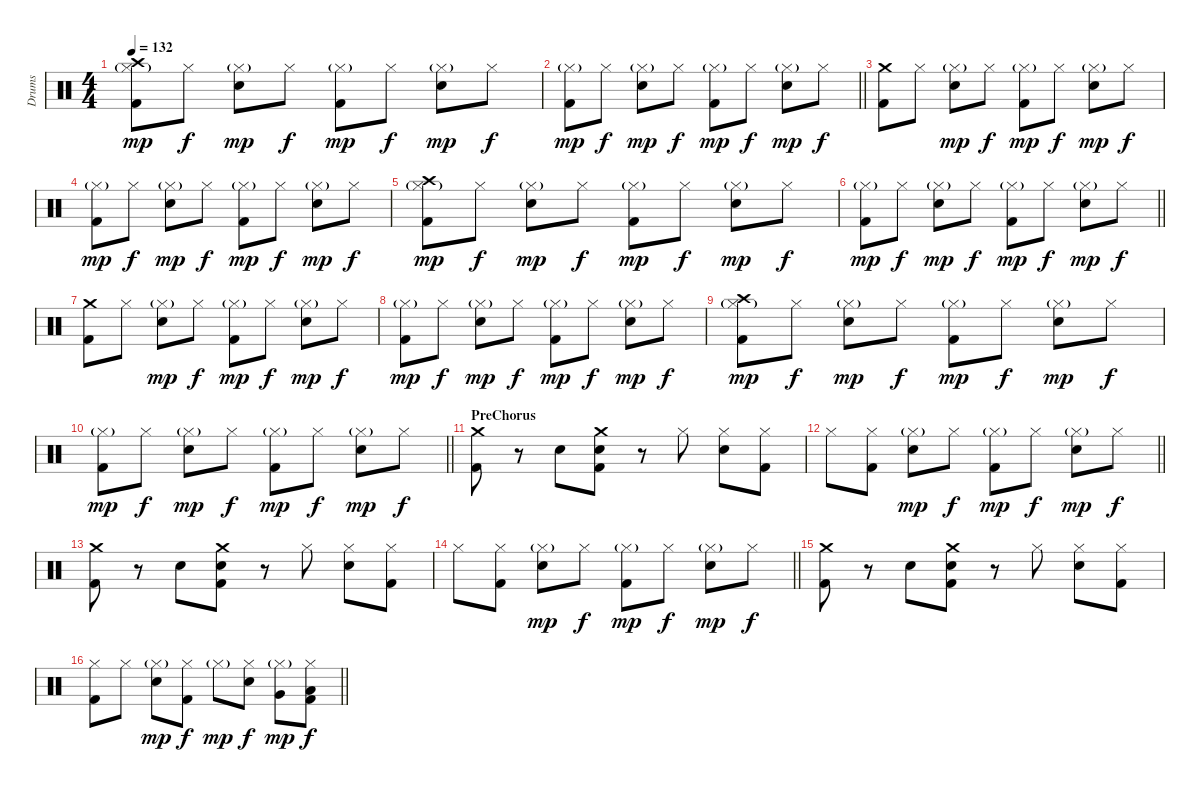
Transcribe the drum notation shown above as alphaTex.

\track ("Drums" "Drums") {instrument percussion}
\staff {score}
\articulation defaults
\ts (4 4)
\tempo 132
\clef neutral
\ks c
("Hi-Hat (closed)"{g} "Crash high (hit)" "Kick (hit) 2").8{dy mp} "Hi-Hat (closed)".8{dy f} ("Hi-Hat (closed)"{g} "Snare (hit) 2").8{dy mp} "Hi-Hat (closed)".8{dy f} ("Hi-Hat (closed)"{g} "Kick (hit) 2").8{dy mp} "Hi-Hat (closed)".8{dy f} ("Hi-Hat (closed)"{g} "Snare (hit) 2").8{dy mp} "Hi-Hat (closed)".8{dy f} |
\barLineRight lightlight
("Hi-Hat (closed)"{g} "Kick (hit) 2").8{dy mp} "Hi-Hat (closed)".8{dy f} ("Hi-Hat (closed)"{g} "Snare (hit) 2").8{dy mp} "Hi-Hat (closed)".8{dy f} ("Hi-Hat (closed)"{g} "Kick (hit) 2").8{dy mp} "Hi-Hat (closed)".8{dy f} ("Hi-Hat (closed)"{g} "Snare (hit) 2").8{dy mp} "Hi-Hat (closed)".8{dy f} |
("Crash medium (hit)" "Kick (hit) 2").8 "Hi-Hat (closed)".8 ("Hi-Hat (closed)"{g} "Snare (hit) 2").8{dy mp} "Hi-Hat (closed)".8{dy f} ("Hi-Hat (closed)"{g} "Kick (hit) 2").8{dy mp} "Hi-Hat (closed)".8{dy f} ("Hi-Hat (closed)"{g} "Snare (hit) 2").8{dy mp} "Hi-Hat (closed)".8{dy f} |
("Hi-Hat (closed)"{g} "Kick (hit) 2").8{dy mp} "Hi-Hat (closed)".8{dy f} ("Hi-Hat (closed)"{g} "Snare (hit) 2").8{dy mp} "Hi-Hat (closed)".8{dy f} ("Hi-Hat (closed)"{g} "Kick (hit) 2").8{dy mp} "Hi-Hat (closed)".8{dy f} ("Hi-Hat (closed)"{g} "Snare (hit) 2").8{dy mp} "Hi-Hat (closed)".8{dy f} |
("Hi-Hat (closed)"{g} "Crash high (hit)" "Kick (hit) 2").8{dy mp} "Hi-Hat (closed)".8{dy f} ("Hi-Hat (closed)"{g} "Snare (hit) 2").8{dy mp} "Hi-Hat (closed)".8{dy f} ("Hi-Hat (closed)"{g} "Kick (hit) 2").8{dy mp} "Hi-Hat (closed)".8{dy f} ("Hi-Hat (closed)"{g} "Snare (hit) 2").8{dy mp} "Hi-Hat (closed)".8{dy f} |
\barLineRight lightlight
("Hi-Hat (closed)"{g} "Kick (hit) 2").8{dy mp} "Hi-Hat (closed)".8{dy f} ("Hi-Hat (closed)"{g} "Snare (hit) 2").8{dy mp} "Hi-Hat (closed)".8{dy f} ("Hi-Hat (closed)"{g} "Kick (hit) 2").8{dy mp} "Hi-Hat (closed)".8{dy f} ("Hi-Hat (closed)"{g} "Snare (hit) 2").8{dy mp} "Hi-Hat (closed)".8{dy f} |
("Crash medium (hit)" "Kick (hit) 2").8 "Hi-Hat (closed)".8 ("Hi-Hat (closed)"{g} "Snare (hit) 2").8{dy mp} "Hi-Hat (closed)".8{dy f} ("Hi-Hat (closed)"{g} "Kick (hit) 2").8{dy mp} "Hi-Hat (closed)".8{dy f} ("Hi-Hat (closed)"{g} "Snare (hit) 2").8{dy mp} "Hi-Hat (closed)".8{dy f} |
("Hi-Hat (closed)"{g} "Kick (hit) 2").8{dy mp} "Hi-Hat (closed)".8{dy f} ("Hi-Hat (closed)"{g} "Snare (hit) 2").8{dy mp} "Hi-Hat (closed)".8{dy f} ("Hi-Hat (closed)"{g} "Kick (hit) 2").8{dy mp} "Hi-Hat (closed)".8{dy f} ("Hi-Hat (closed)"{g} "Snare (hit) 2").8{dy mp} "Hi-Hat (closed)".8{dy f} |
("Hi-Hat (closed)"{g} "Crash high (hit)" "Kick (hit) 2").8{dy mp} "Hi-Hat (closed)".8{dy f} ("Hi-Hat (closed)"{g} "Snare (hit) 2").8{dy mp} "Hi-Hat (closed)".8{dy f} ("Hi-Hat (closed)"{g} "Kick (hit) 2").8{dy mp} "Hi-Hat (closed)".8{dy f} ("Hi-Hat (closed)"{g} "Snare (hit) 2").8{dy mp} "Hi-Hat (closed)".8{dy f} |
\barLineRight lightlight
("Hi-Hat (closed)"{g} "Kick (hit) 2").8{dy mp} "Hi-Hat (closed)".8{dy f} ("Hi-Hat (closed)"{g} "Snare (hit) 2").8{dy mp} "Hi-Hat (closed)".8{dy f} ("Hi-Hat (closed)"{g} "Kick (hit) 2").8{dy mp} "Hi-Hat (closed)".8{dy f} ("Hi-Hat (closed)"{g} "Snare (hit) 2").8{dy mp} "Hi-Hat (closed)".8{dy f} |
\section ("" "PreChorus")
("Crash medium (hit)" "Kick (hit) 2").8 r.8 "Snare (hit) 2".8 ("Crash medium (hit)" "Snare (hit) 2" "Kick (hit) 2").8 r.8 "Hi-Hat (closed)".8 ("Hi-Hat (closed)" "Snare (hit) 2").8 ("Hi-Hat (closed)" "Kick (hit) 2").8 |
\barLineRight lightlight "Hi-Hat (closed)".8
("Hi-Hat (closed)" "Kick (hit) 2").8 ("Hi-Hat (closed)"{g} "Snare (hit) 2").8{dy mp} "Hi-Hat (closed)".8{dy f} ("Hi-Hat (closed)"{g} "Kick (hit) 2").8{dy mp} "Hi-Hat (closed)".8{dy f} ("Hi-Hat (closed)"{g} "Snare (hit) 2").8{dy mp} "Hi-Hat (closed)".8{dy f} |
("Crash medium (hit)" "Kick (hit) 2").8 r.8 "Snare (hit) 2".8 ("Crash medium (hit)" "Snare (hit) 2" "Kick (hit) 2").8 r.8 "Hi-Hat (closed)".8 ("Hi-Hat (closed)" "Snare (hit) 2").8 ("Hi-Hat (closed)" "Kick (hit) 2").8 |
\barLineRight lightlight "Hi-Hat (closed)".8
("Hi-Hat (closed)" "Kick (hit) 2").8 ("Hi-Hat (closed)"{g} "Snare (hit) 2").8{dy mp} "Hi-Hat (closed)".8{dy f} ("Hi-Hat (closed)"{g} "Kick (hit) 2").8{dy mp} "Hi-Hat (closed)".8{dy f} ("Hi-Hat (closed)"{g} "Snare (hit) 2").8{dy mp} "Hi-Hat (closed)".8{dy f} |
("Crash medium (hit)" "Kick (hit) 2").8 r.8 "Snare (hit) 2".8 ("Crash medium (hit)" "Snare (hit) 2" "Kick (hit) 2").8 r.8 "Hi-Hat (closed)".8 ("Hi-Hat (closed)" "Snare (hit) 2").8 ("Hi-Hat (closed)" "Kick (hit) 2").8 |
\barLineRight lightlight
("Hi-Hat (closed)" "Kick (hit) 2").8 "Hi-Hat (closed)".8 ("Hi-Hat (closed)"{g} "Snare (hit) 2").8{dy mp} ("Hi-Hat (closed)" "Kick (hit) 2").8{dy f} "Hi-Hat (closed)"{g}.8{dy mp} ("Hi-Hat (closed)" "Snare (hit) 2").8{dy f} ("Hi-Hat (closed)"{g} "Very Low Tom (hit)").8{dy mp} ("Hi-Hat (closed)" "Low Tom (hit)" "Kick (hit) 2").8{dy f}
